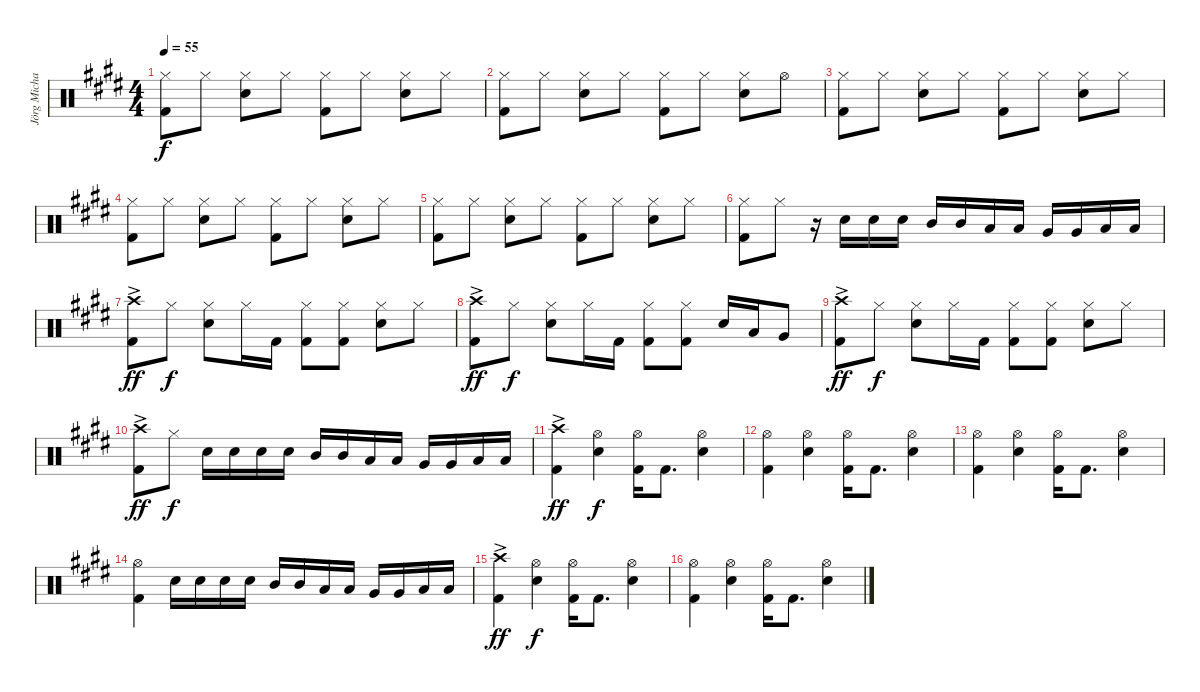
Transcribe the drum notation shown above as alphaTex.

\track ("Jörg Michael" "Jörg Micha") {instrument percussion}
\staff {score}
\articulation defaults
\ts (4 4)
\tempo 55
\clef neutral
\ks e
("Hi-Hat (closed)" "Kick (hit) 2").8{dy f} "Hi-Hat (closed)".8 ("Hi-Hat (closed)" "Electric Snare (hit)").8 "Hi-Hat (closed)".8 ("Hi-Hat (closed)" "Kick (hit) 2").8 "Hi-Hat (closed)".8 ("Hi-Hat (closed)" "Electric Snare (hit)").8 "Hi-Hat (closed)".8 |
("Hi-Hat (closed)" "Kick (hit) 2").8 "Hi-Hat (closed)".8 ("Hi-Hat (closed)" "Electric Snare (hit)").8 "Hi-Hat (closed)".8 ("Hi-Hat (closed)" "Kick (hit) 2").8 "Hi-Hat (closed)".8 ("Hi-Hat (closed)" "Electric Snare (hit)").8 "Hi-Hat (open)".8 |
("Hi-Hat (closed)" "Kick (hit) 2").8 "Hi-Hat (closed)".8 ("Hi-Hat (closed)" "Electric Snare (hit)").8 "Hi-Hat (closed)".8 ("Hi-Hat (closed)" "Kick (hit) 2").8 "Hi-Hat (closed)".8 ("Hi-Hat (closed)" "Electric Snare (hit)").8 "Hi-Hat (closed)".8 |
("Hi-Hat (closed)" "Kick (hit) 2").8 "Hi-Hat (closed)".8 ("Hi-Hat (closed)" "Electric Snare (hit)").8 "Hi-Hat (closed)".8 ("Hi-Hat (closed)" "Kick (hit) 2").8 "Hi-Hat (closed)".8 ("Hi-Hat (closed)" "Electric Snare (hit)").8 "Hi-Hat (closed)".8 |
("Hi-Hat (closed)" "Kick (hit) 2").8 "Hi-Hat (closed)".8 ("Hi-Hat (closed)" "Electric Snare (hit)").8 "Hi-Hat (closed)".8 ("Hi-Hat (closed)" "Kick (hit) 2").8 "Hi-Hat (closed)".8 ("Hi-Hat (closed)" "Electric Snare (hit)").8 "Hi-Hat (closed)".8 |
("Hi-Hat (closed)" "Kick (hit) 2").8 "Hi-Hat (closed)".8 r.16 "Electric Snare (hit)".16 "Electric Snare (hit)".16 "Electric Snare (hit)".16 "Mid Tom (hit)".16 "Mid Tom (hit)".16 "Low Tom (hit)".16 "Low Tom (hit)".16 "Very Low Tom (hit)".16 "Very Low Tom (hit)".16 "Low Floor Tom (hit)".16 "Low Floor Tom (hit)".16 |
("Crash high (hit)"{ac} "Kick (hit) 2"{ac}).8{dy ff} "Hi-Hat (closed)".8{dy f} ("Hi-Hat (closed)" "Electric Snare (hit)").8 "Hi-Hat (closed)".16 "Kick (hit) 2".16 ("Hi-Hat (closed)" "Kick (hit) 2").8 ("Hi-Hat (closed)" "Kick (hit) 2").8 ("Hi-Hat (closed)" "Electric Snare (hit)").8 "Hi-Hat (closed)".8 |
("Crash high (hit)"{ac} "Kick (hit) 2"{ac}).8{dy ff} "Hi-Hat (closed)".8{dy f} ("Hi-Hat (closed)" "Electric Snare (hit)").8 "Hi-Hat (closed)".16 "Kick (hit) 2".16 ("Hi-Hat (closed)" "Kick (hit) 2").8 ("Hi-Hat (closed)" "Kick (hit) 2").8 "Electric Snare (hit)".16 "Low Tom (hit)".16 "Very Low Tom (hit)".8 |
("Crash high (hit)"{ac} "Kick (hit) 2"{ac}).8{dy ff} "Hi-Hat (closed)".8{dy f} ("Hi-Hat (closed)" "Electric Snare (hit)").8 "Hi-Hat (closed)".16 "Kick (hit) 2".16 ("Hi-Hat (closed)" "Kick (hit) 2").8 ("Hi-Hat (closed)" "Kick (hit) 2").8 ("Hi-Hat (closed)" "Electric Snare (hit)").8 "Hi-Hat (closed)".8 |
("Crash high (hit)"{ac} "Kick (hit) 2"{ac}).8{dy ff} "Hi-Hat (closed)".8{dy f} "Electric Snare (hit)".16 "Electric Snare (hit)".16 "Electric Snare (hit)".16 "Electric Snare (hit)".16 "Mid Tom (hit)".16 "Mid Tom (hit)".16 "Low Tom (hit)".16 "Low Tom (hit)".16 "Very Low Tom (hit)".16 "Very Low Tom (hit)".16 "Low Floor Tom (hit)".16 "Low Floor Tom (hit)".16 |
("Crash high (hit)"{ac} "Kick (hit) 2"{ac}).4{dy ff volume 13} ("Hi-Hat (open)" "Electric Snare (hit)").4{dy f} ("Hi-Hat (open)" "Kick (hit) 2").16 "Kick (hit) 2".8{d} ("Hi-Hat (open)" "Electric Snare (hit)").4 |
("Hi-Hat (open)" "Kick (hit) 2").4 ("Hi-Hat (open)" "Electric Snare (hit)").4 ("Hi-Hat (open)" "Kick (hit) 2").16 "Kick (hit) 2".8{d} ("Hi-Hat (open)" "Electric Snare (hit)").4 |
("Hi-Hat (open)" "Kick (hit) 2").4 ("Hi-Hat (open)" "Electric Snare (hit)").4 ("Hi-Hat (open)" "Kick (hit) 2").16 "Kick (hit) 2".8{d} ("Hi-Hat (open)" "Electric Snare (hit)").4 |
("Hi-Hat (open)" "Kick (hit) 2").4 "Electric Snare (hit)".16 "Electric Snare (hit)".16 "Electric Snare (hit)".16 "Electric Snare (hit)".16 "Mid Tom (hit)".16 "Mid Tom (hit)".16 "Low Tom (hit)".16 "Low Tom (hit)".16 "Very Low Tom (hit)".16 "Very Low Tom (hit)".16 "Low Floor Tom (hit)".16 "Low Floor Tom (hit)".16 |
("Crash high (hit)"{ac} "Kick (hit) 2"{ac}).4{dy ff volume 13} ("Hi-Hat (open)" "Electric Snare (hit)").4{dy f} ("Hi-Hat (open)" "Kick (hit) 2").16 "Kick (hit) 2".8{d} ("Hi-Hat (open)" "Electric Snare (hit)").4 |
("Hi-Hat (open)" "Kick (hit) 2").4 ("Hi-Hat (open)" "Electric Snare (hit)").4 ("Hi-Hat (open)" "Kick (hit) 2").16 "Kick (hit) 2".8{d} ("Hi-Hat (open)" "Electric Snare (hit)").4
